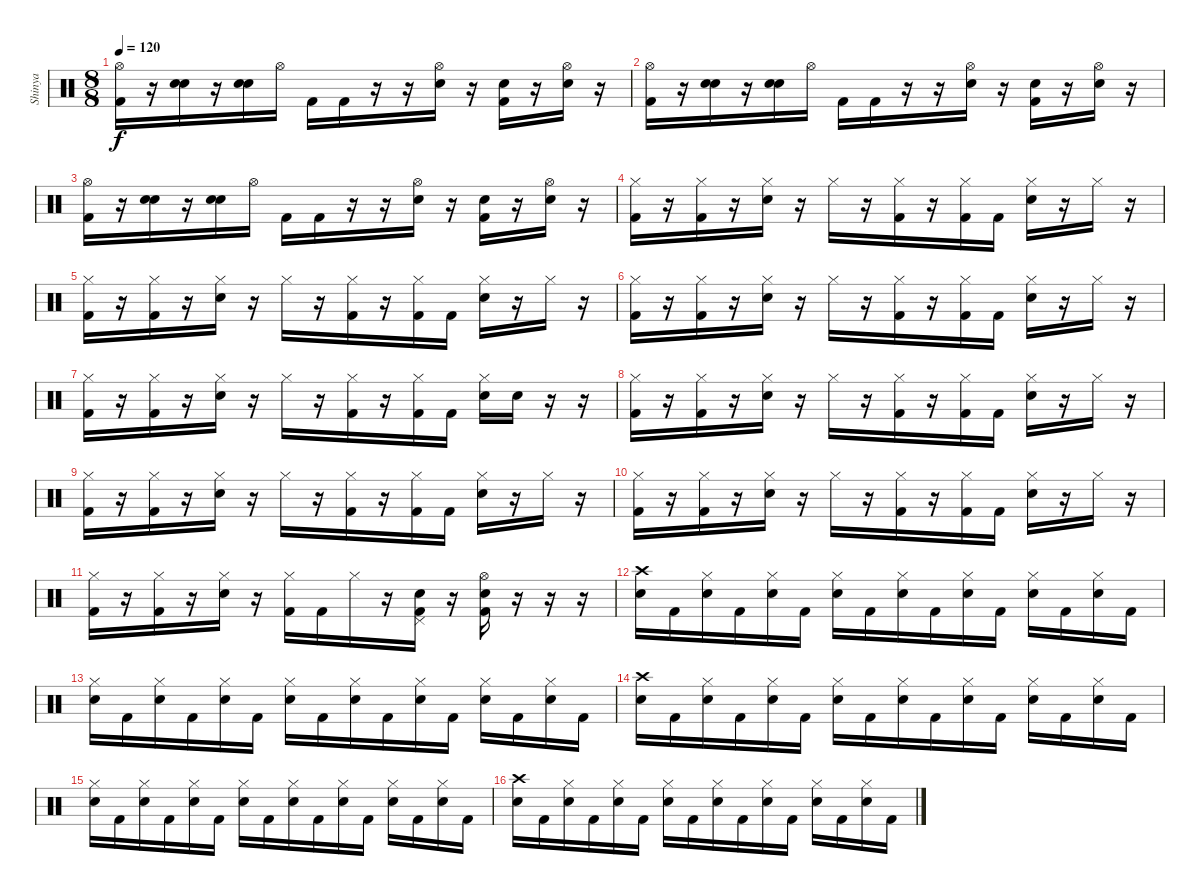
\track ("Shinya" "Shinya") {instrument percussion}
\staff {score}
\articulation defaults
\ts (8 8)
\tempo 120
\clef neutral
\ks c
("Hi-Hat (open)" "Kick (hit) 2").16{dy f} r.16 ("Snare (hit) 2" "Snare (hit) 2").16 r.16 ("Snare (hit) 2" "Snare (hit) 2").16 "Hi-Hat (open)".16 "Kick (hit) 2".16 "Kick (hit) 2".16 r.16 r.16 ("Hi-Hat (open)" "Snare (hit) 2").16 r.16 ("Snare (hit) 2" "Kick (hit) 2").16 r.16 ("Hi-Hat (open)" "Snare (hit) 2").16 r.16 |
("Hi-Hat (open)" "Kick (hit) 2").16 r.16 ("Snare (hit) 2" "Snare (hit) 2").16 r.16 ("Snare (hit) 2" "Snare (hit) 2").16 "Hi-Hat (open)".16 "Kick (hit) 2".16 "Kick (hit) 2".16 r.16 r.16 ("Hi-Hat (open)" "Snare (hit) 2").16 r.16 ("Snare (hit) 2" "Kick (hit) 2").16 r.16 ("Hi-Hat (open)" "Snare (hit) 2").16 r.16 |
("Hi-Hat (open)" "Kick (hit) 2").16 r.16 ("Snare (hit) 2" "Snare (hit) 2").16 r.16 ("Snare (hit) 2" "Snare (hit) 2").16 "Hi-Hat (open)".16 "Kick (hit) 2".16 "Kick (hit) 2".16 r.16 r.16 ("Hi-Hat (open)" "Snare (hit) 2").16 r.16 ("Snare (hit) 2" "Kick (hit) 2").16 r.16 ("Hi-Hat (open)" "Snare (hit) 2").16 r.16 |
("Hi-Hat (closed)" "Kick (hit) 2").16 r.16 ("Hi-Hat (closed)" "Kick (hit) 2").16 r.16 ("Hi-Hat (closed)" "Snare (hit) 2").16 r.16 "Hi-Hat (closed)".16 r.16 ("Hi-Hat (closed)" "Kick (hit) 2").16 r.16 ("Hi-Hat (closed)" "Kick (hit) 2").16 "Kick (hit) 2".16 ("Hi-Hat (closed)" "Snare (hit) 2").16 r.16 "Hi-Hat (closed)".16 r.16 |
("Hi-Hat (closed)" "Kick (hit) 2").16 r.16 ("Hi-Hat (closed)" "Kick (hit) 2").16 r.16 ("Hi-Hat (closed)" "Snare (hit) 2").16 r.16 "Hi-Hat (closed)".16 r.16 ("Hi-Hat (closed)" "Kick (hit) 2").16 r.16 ("Hi-Hat (closed)" "Kick (hit) 2").16 "Kick (hit) 2".16 ("Hi-Hat (closed)" "Snare (hit) 2").16 r.16 "Hi-Hat (closed)".16 r.16 |
("Hi-Hat (closed)" "Kick (hit) 2").16 r.16 ("Hi-Hat (closed)" "Kick (hit) 2").16 r.16 ("Hi-Hat (closed)" "Snare (hit) 2").16 r.16 "Hi-Hat (closed)".16 r.16 ("Hi-Hat (closed)" "Kick (hit) 2").16 r.16 ("Hi-Hat (closed)" "Kick (hit) 2").16 "Kick (hit) 2".16 ("Hi-Hat (closed)" "Snare (hit) 2").16 r.16 "Hi-Hat (closed)".16 r.16 |
("Hi-Hat (closed)" "Kick (hit) 2").16 r.16 ("Hi-Hat (closed)" "Kick (hit) 2").16 r.16 ("Hi-Hat (closed)" "Snare (hit) 2").16 r.16 "Hi-Hat (closed)".16 r.16 ("Hi-Hat (closed)" "Kick (hit) 2").16 r.16 ("Hi-Hat (closed)" "Kick (hit) 2").16 "Kick (hit) 2".16 ("Hi-Hat (closed)" "Snare (hit) 2").16 "Snare (hit) 2".16 r.16 r.16 |
("Hi-Hat (closed)" "Kick (hit) 2").16 r.16 ("Hi-Hat (closed)" "Kick (hit) 2").16 r.16 ("Hi-Hat (closed)" "Snare (hit) 2").16 r.16 "Hi-Hat (closed)".16 r.16 ("Hi-Hat (closed)" "Kick (hit) 2").16 r.16 ("Hi-Hat (closed)" "Kick (hit) 2").16 "Kick (hit) 2".16 ("Hi-Hat (closed)" "Snare (hit) 2").16 r.16 "Hi-Hat (closed)".16 r.16 |
("Hi-Hat (closed)" "Kick (hit) 2").16 r.16 ("Hi-Hat (closed)" "Kick (hit) 2").16 r.16 ("Hi-Hat (closed)" "Snare (hit) 2").16 r.16 "Hi-Hat (closed)".16 r.16 ("Hi-Hat (closed)" "Kick (hit) 2").16 r.16 ("Hi-Hat (closed)" "Kick (hit) 2").16 "Kick (hit) 2".16 ("Hi-Hat (closed)" "Snare (hit) 2").16 r.16 "Hi-Hat (closed)".16 r.16 |
("Hi-Hat (closed)" "Kick (hit) 2").16 r.16 ("Hi-Hat (closed)" "Kick (hit) 2").16 r.16 ("Hi-Hat (closed)" "Snare (hit) 2").16 r.16 "Hi-Hat (closed)".16 r.16 ("Hi-Hat (closed)" "Kick (hit) 2").16 r.16 ("Hi-Hat (closed)" "Kick (hit) 2").16 "Kick (hit) 2".16 ("Hi-Hat (closed)" "Snare (hit) 2").16 r.16 "Hi-Hat (closed)".16 r.16 |
("Hi-Hat (closed)" "Kick (hit) 2").16 r.16 ("Hi-Hat (closed)" "Kick (hit) 2").16 r.16 ("Hi-Hat (closed)" "Snare (hit) 2").16 r.16 ("Hi-Hat (closed)" "Kick (hit) 2").16 "Kick (hit) 2".16 "Hi-Hat (closed)".16 r.16 ("Pedal Hi-Hat (hit)" "Snare (hit) 2" "Kick (hit) 2").16 r.16 ("Hi-Hat (open)" "Snare (hit) 2" "Kick (hit) 2").16 r.16 r.16 r.16 |
("Crash high (hit)" "Snare (hit) 2").16 "Kick (hit) 2".16 ("Hi-Hat (closed)" "Snare (hit) 2").16 "Kick (hit) 2".16 ("Hi-Hat (closed)" "Snare (hit) 2").16 "Kick (hit) 2".16 ("Hi-Hat (closed)" "Snare (hit) 2").16 "Kick (hit) 2".16 ("Hi-Hat (closed)" "Snare (hit) 2").16 "Kick (hit) 2".16 ("Hi-Hat (closed)" "Snare (hit) 2").16 "Kick (hit) 2".16 ("Hi-Hat (closed)" "Snare (hit) 2").16 "Kick (hit) 2".16 ("Hi-Hat (closed)" "Snare (hit) 2").16 "Kick (hit) 2".16 |
("Hi-Hat (closed)" "Snare (hit) 2").16 "Kick (hit) 2".16 ("Hi-Hat (closed)" "Snare (hit) 2").16 "Kick (hit) 2".16 ("Hi-Hat (closed)" "Snare (hit) 2").16 "Kick (hit) 2".16 ("Hi-Hat (closed)" "Snare (hit) 2").16 "Kick (hit) 2".16 ("Hi-Hat (closed)" "Snare (hit) 2").16 "Kick (hit) 2".16 ("Hi-Hat (closed)" "Snare (hit) 2").16 "Kick (hit) 2".16 ("Hi-Hat (closed)" "Snare (hit) 2").16 "Kick (hit) 2".16 ("Hi-Hat (closed)" "Snare (hit) 2").16 "Kick (hit) 2".16 |
("Crash high (hit)" "Snare (hit) 2").16 "Kick (hit) 2".16 ("Hi-Hat (closed)" "Snare (hit) 2").16 "Kick (hit) 2".16 ("Hi-Hat (closed)" "Snare (hit) 2").16 "Kick (hit) 2".16 ("Hi-Hat (closed)" "Snare (hit) 2").16 "Kick (hit) 2".16 ("Hi-Hat (closed)" "Snare (hit) 2").16 "Kick (hit) 2".16 ("Hi-Hat (closed)" "Snare (hit) 2").16 "Kick (hit) 2".16 ("Hi-Hat (closed)" "Snare (hit) 2").16 "Kick (hit) 2".16 ("Hi-Hat (closed)" "Snare (hit) 2").16 "Kick (hit) 2".16 |
("Hi-Hat (closed)" "Snare (hit) 2").16 "Kick (hit) 2".16 ("Hi-Hat (closed)" "Snare (hit) 2").16 "Kick (hit) 2".16 ("Hi-Hat (closed)" "Snare (hit) 2").16 "Kick (hit) 2".16 ("Hi-Hat (closed)" "Snare (hit) 2").16 "Kick (hit) 2".16 ("Hi-Hat (closed)" "Snare (hit) 2").16 "Kick (hit) 2".16 ("Hi-Hat (closed)" "Snare (hit) 2").16 "Kick (hit) 2".16 ("Hi-Hat (closed)" "Snare (hit) 2").16 "Kick (hit) 2".16 ("Hi-Hat (closed)" "Snare (hit) 2").16 "Kick (hit) 2".16 |
("Crash high (hit)" "Snare (hit) 2").16 "Kick (hit) 2".16 ("Hi-Hat (closed)" "Snare (hit) 2").16 "Kick (hit) 2".16 ("Hi-Hat (closed)" "Snare (hit) 2").16 "Kick (hit) 2".16 ("Hi-Hat (closed)" "Snare (hit) 2").16 "Kick (hit) 2".16 ("Hi-Hat (closed)" "Snare (hit) 2").16 "Kick (hit) 2".16 ("Hi-Hat (closed)" "Snare (hit) 2").16 "Kick (hit) 2".16 ("Hi-Hat (closed)" "Snare (hit) 2").16 "Kick (hit) 2".16 ("Hi-Hat (closed)" "Snare (hit) 2").16 "Kick (hit) 2".16
